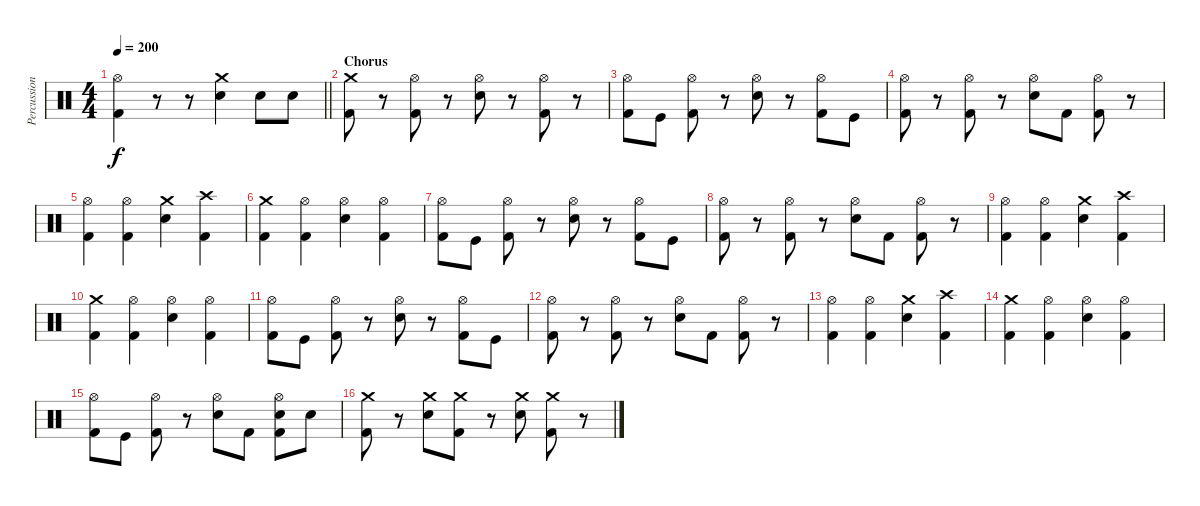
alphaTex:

\track ("Percussion" "Percussion") {instrument percussion}
\staff {score}
\articulation defaults
\ts (4 4)
\tempo 200
\clef neutral
\barLineRight lightlight
\ks c
("Hi-Hat (open)" "Kick (hit) 2").4{dy f} r.8 r.8 ("Crash medium (hit)" "Snare (hit) 2").4 "Snare (hit) 2".8 "Snare (hit) 2".8 |
\section ("" "Chorus")
("Crash medium (hit)" "Kick (hit) 2").8 r.8 ("Hi-Hat (open)" "Kick (hit) 2").8 r.8 ("Hi-Hat (open)" "Snare (hit) 2").8 r.8 ("Hi-Hat (open)" "Kick (hit) 2").8 r.8 |
("Hi-Hat (open)" "Kick (hit) 2").8 "Kick (hit)".8 ("Hi-Hat (open)" "Kick (hit) 2").8 r.8 ("Hi-Hat (open)" "Snare (hit) 2").8 r.8 ("Hi-Hat (open)" "Kick (hit) 2").8 "Kick (hit)".8 |
("Hi-Hat (open)" "Kick (hit) 2").8 r.8 ("Hi-Hat (open)" "Kick (hit) 2").8 r.8 ("Hi-Hat (open)" "Snare (hit) 2").8 "Kick (hit) 2".8 ("Hi-Hat (open)" "Kick (hit) 2").8 r.8 |
("Hi-Hat (open)" "Kick (hit) 2").4 ("Hi-Hat (open)" "Kick (hit) 2").4 ("Crash medium (hit)" "Snare (hit) 2").4 ("Crash high (hit)" "Kick (hit) 2").4 |
("Crash medium (hit)" "Kick (hit) 2").4 ("Hi-Hat (open)" "Kick (hit) 2").4 ("Hi-Hat (open)" "Snare (hit) 2").4 ("Hi-Hat (open)" "Kick (hit) 2").4 |
("Hi-Hat (open)" "Kick (hit) 2").8 "Kick (hit)".8 ("Hi-Hat (open)" "Kick (hit) 2").8 r.8 ("Hi-Hat (open)" "Snare (hit) 2").8 r.8 ("Hi-Hat (open)" "Kick (hit) 2").8 "Kick (hit)".8 |
("Hi-Hat (open)" "Kick (hit) 2").8 r.8 ("Hi-Hat (open)" "Kick (hit) 2").8 r.8 ("Hi-Hat (open)" "Snare (hit) 2").8 "Kick (hit) 2".8 ("Hi-Hat (open)" "Kick (hit) 2").8 r.8 |
("Hi-Hat (open)" "Kick (hit) 2").4 ("Hi-Hat (open)" "Kick (hit) 2").4 ("Crash medium (hit)" "Snare (hit) 2").4 ("Crash high (hit)" "Kick (hit) 2").4 |
("Crash medium (hit)" "Kick (hit) 2").4 ("Hi-Hat (open)" "Kick (hit) 2").4 ("Hi-Hat (open)" "Snare (hit) 2").4 ("Hi-Hat (open)" "Kick (hit) 2").4 |
("Hi-Hat (open)" "Kick (hit) 2").8 "Kick (hit)".8 ("Hi-Hat (open)" "Kick (hit) 2").8 r.8 ("Hi-Hat (open)" "Snare (hit) 2").8 r.8 ("Hi-Hat (open)" "Kick (hit) 2").8 "Kick (hit)".8 |
("Hi-Hat (open)" "Kick (hit) 2").8 r.8 ("Hi-Hat (open)" "Kick (hit) 2").8 r.8 ("Hi-Hat (open)" "Snare (hit) 2").8 "Kick (hit) 2".8 ("Hi-Hat (open)" "Kick (hit) 2").8 r.8 |
("Hi-Hat (open)" "Kick (hit) 2").4 ("Hi-Hat (open)" "Kick (hit) 2").4 ("Crash medium (hit)" "Snare (hit) 2").4 ("Crash high (hit)" "Kick (hit) 2").4 |
("Crash medium (hit)" "Kick (hit) 2").4 ("Hi-Hat (open)" "Kick (hit) 2").4 ("Hi-Hat (open)" "Snare (hit) 2").4 ("Hi-Hat (open)" "Kick (hit) 2").4 |
("Hi-Hat (open)" "Kick (hit) 2").8 "Kick (hit)".8 ("Hi-Hat (open)" "Kick (hit) 2").8 r.8 ("Hi-Hat (open)" "Snare (hit) 2").8 "Kick (hit) 2".8 ("Hi-Hat (open)" "Snare (hit) 2" "Kick (hit) 2").8 "Snare (hit) 2".8 |
("Crash medium (hit)" "Kick (hit) 2").8 r.8 ("Crash medium (hit)" "Snare (hit) 2").8 ("Crash medium (hit)" "Kick (hit) 2").8 r.8 ("Crash medium (hit)" "Snare (hit) 2").8 ("Crash medium (hit)" "Kick (hit) 2").8 r.8
